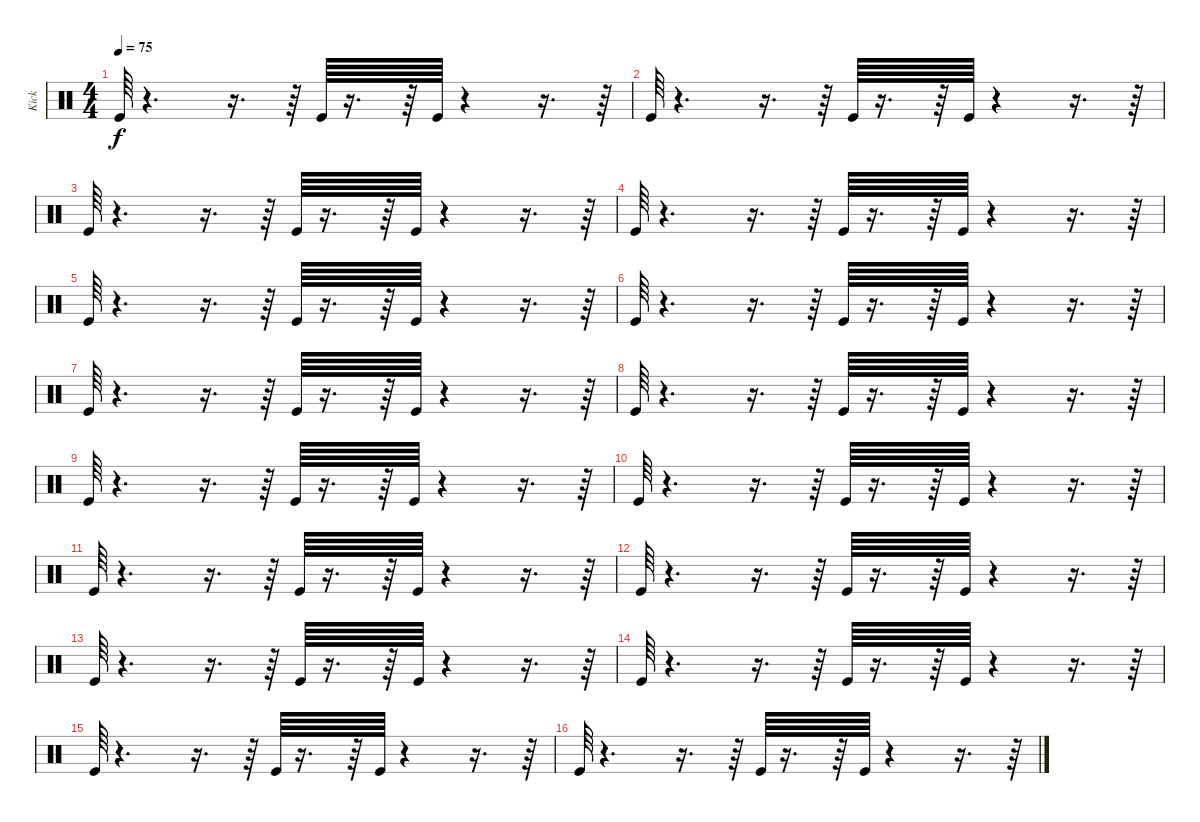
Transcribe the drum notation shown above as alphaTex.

\track ("Kick" "Kick") {instrument percussion}
\staff {score}
\articulation defaults
\ts (4 4)
\tempo 75
\clef neutral
\ks c "Kick (hit)".64{dy f}
r.4{d} r.16{d} r.64 "Kick (hit)".64 r.16{d} r.64 "Kick (hit)".64 r.4 r.16{d} r.64 |
"Kick (hit)".64 r.4{d} r.16{d} r.64 "Kick (hit)".64 r.16{d} r.64 "Kick (hit)".64 r.4 r.16{d} r.64 |
"Kick (hit)".64 r.4{d} r.16{d} r.64 "Kick (hit)".64 r.16{d} r.64 "Kick (hit)".64 r.4 r.16{d} r.64 |
"Kick (hit)".64 r.4{d} r.16{d} r.64 "Kick (hit)".64 r.16{d} r.64 "Kick (hit)".64 r.4 r.16{d} r.64 |
"Kick (hit)".64 r.4{d} r.16{d} r.64 "Kick (hit)".64 r.16{d} r.64 "Kick (hit)".64 r.4 r.16{d} r.64 |
"Kick (hit)".64 r.4{d} r.16{d} r.64 "Kick (hit)".64 r.16{d} r.64 "Kick (hit)".64 r.4 r.16{d} r.64 |
"Kick (hit)".64 r.4{d} r.16{d} r.64 "Kick (hit)".64 r.16{d} r.64 "Kick (hit)".64 r.4 r.16{d} r.64 |
"Kick (hit)".64 r.4{d} r.16{d} r.64 "Kick (hit)".64 r.16{d} r.64 "Kick (hit)".64 r.4 r.16{d} r.64 |
"Kick (hit)".64 r.4{d} r.16{d} r.64 "Kick (hit)".64 r.16{d} r.64 "Kick (hit)".64 r.4 r.16{d} r.64 |
"Kick (hit)".64 r.4{d} r.16{d} r.64 "Kick (hit)".64 r.16{d} r.64 "Kick (hit)".64 r.4 r.16{d} r.64 |
"Kick (hit)".64 r.4{d} r.16{d} r.64 "Kick (hit)".64 r.16{d} r.64 "Kick (hit)".64 r.4 r.16{d} r.64 |
"Kick (hit)".64 r.4{d} r.16{d} r.64 "Kick (hit)".64 r.16{d} r.64 "Kick (hit)".64 r.4 r.16{d} r.64 |
"Kick (hit)".64 r.4{d} r.16{d} r.64 "Kick (hit)".64 r.16{d} r.64 "Kick (hit)".64 r.4 r.16{d} r.64 |
"Kick (hit)".64 r.4{d} r.16{d} r.64 "Kick (hit)".64 r.16{d} r.64 "Kick (hit)".64 r.4 r.16{d} r.64 |
"Kick (hit)".64 r.4{d} r.16{d} r.64 "Kick (hit)".64 r.16{d} r.64 "Kick (hit)".64 r.4 r.16{d} r.64 |
"Kick (hit)".64 r.4{d} r.16{d} r.64 "Kick (hit)".64 r.16{d} r.64 "Kick (hit)".64 r.4 r.16{d} r.64
